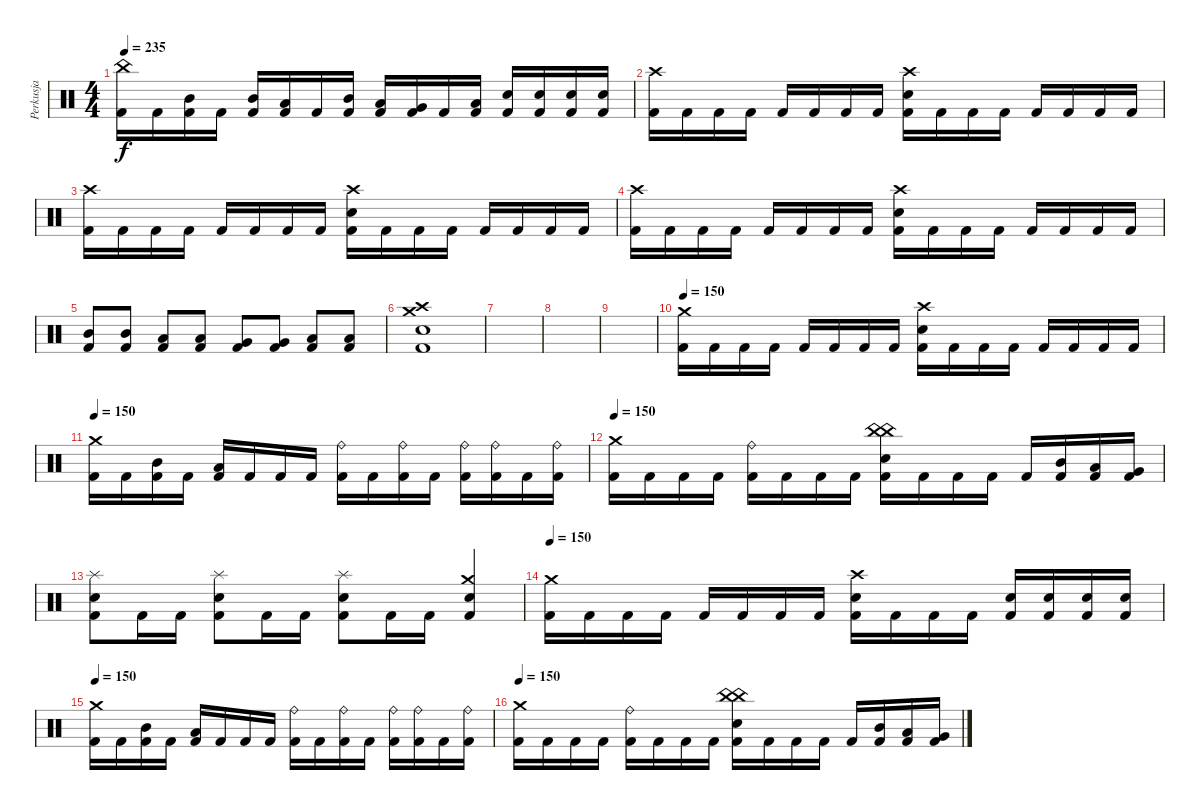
\track ("Perkusja" "Perkusja") {instrument percussion}
\staff {score}
\articulation defaults
\ts (4 4)
\tempo 235
\clef neutral
\ks c
("China (hit)" "Kick (hit) 2").16{dy f} "Kick (hit) 2".16 ("Mid Tom (hit)" "Kick (hit) 2").16 "Kick (hit) 2".16 ("Mid Tom (hit)" "Kick (hit) 2").16 ("Low Tom (hit)" "Kick (hit) 2").16 "Kick (hit) 2".16 ("Mid Tom (hit)" "Kick (hit) 2").16 ("Low Tom (hit)" "Kick (hit) 2").16 ("Very Low Tom (hit)" "Kick (hit) 2").16 "Kick (hit) 2".16 ("Low Floor Tom (hit)" "Kick (hit) 2").16 ("Snare (hit) 2" "Kick (hit) 2").16 ("Snare (hit) 2" "Kick (hit) 2").16 ("Snare (hit) 2" "Kick (hit) 2").16 ("Snare (hit) 2" "Kick (hit) 2").16 |
("Crash high (hit)" "Kick (hit) 2").16 "Kick (hit) 2".16 "Kick (hit) 2".16 "Kick (hit) 2".16 "Kick (hit) 2".16 "Kick (hit) 2".16 "Kick (hit) 2".16 "Kick (hit) 2".16 ("Crash high (hit)" "Snare (hit) 2" "Kick (hit) 2").16 "Kick (hit) 2".16 "Kick (hit) 2".16 "Kick (hit) 2".16 "Kick (hit) 2".16 "Kick (hit) 2".16 "Kick (hit) 2".16 "Kick (hit) 2".16 |
("Crash high (hit)" "Kick (hit) 2").16 "Kick (hit) 2".16 "Kick (hit) 2".16 "Kick (hit) 2".16 "Kick (hit) 2".16 "Kick (hit) 2".16 "Kick (hit) 2".16 "Kick (hit) 2".16 ("Crash high (hit)" "Snare (hit) 2" "Kick (hit) 2").16 "Kick (hit) 2".16 "Kick (hit) 2".16 "Kick (hit) 2".16 "Kick (hit) 2".16 "Kick (hit) 2".16 "Kick (hit) 2".16 "Kick (hit) 2".16 |
("Crash high (hit)" "Kick (hit) 2").16 "Kick (hit) 2".16 "Kick (hit) 2".16 "Kick (hit) 2".16 "Kick (hit) 2".16 "Kick (hit) 2".16 "Kick (hit) 2".16 "Kick (hit) 2".16 ("Crash high (hit)" "Snare (hit) 2" "Kick (hit) 2").16 "Kick (hit) 2".16 "Kick (hit) 2".16 "Kick (hit) 2".16 "Kick (hit) 2".16 "Kick (hit) 2".16 "Kick (hit) 2".16 "Kick (hit) 2".16 |
("Mid Tom (hit)" "Kick (hit) 2").8 ("Mid Tom (hit)" "Kick (hit) 2").8 ("Low Tom (hit)" "Kick (hit) 2").8 ("Low Tom (hit)" "Kick (hit) 2").8 ("Very Low Tom (hit)" "Kick (hit) 2").8 ("Very Low Tom (hit)" "Kick (hit) 2").8 ("Low Floor Tom (hit)" "Kick (hit) 2").8 ("Low Floor Tom (hit)" "Kick (hit) 2").8 |
("Crash high (hit)" "Snare (hit) 2" "Crash medium (hit)" "Kick (hit) 2").1 |
|
|
|
\tempo 150
("Crash medium (hit)" "Kick (hit) 2").16 "Kick (hit) 2".16 "Kick (hit) 2".16 "Kick (hit) 2".16 "Kick (hit) 2".16 "Kick (hit) 2".16 "Kick (hit) 2".16 "Kick (hit) 2".16 ("Crash high (hit)" "Snare (hit) 2" "Kick (hit) 2").16 "Kick (hit) 2".16 "Kick (hit) 2".16 "Kick (hit) 2".16 "Kick (hit) 2".16 "Kick (hit) 2".16 "Kick (hit) 2".16 "Kick (hit) 2".16 |
\tempo 150
("Crash medium (hit)" "Kick (hit) 2").16 "Kick (hit) 2".16 ("Mid Tom (hit)" "Kick (hit) 2").16 "Kick (hit) 2".16 ("Low Tom (hit)" "Kick (hit) 2").16 "Kick (hit) 2".16 "Kick (hit) 2".16 "Kick (hit) 2".16 ("Ride (bell)" "Kick (hit) 2").16 "Kick (hit) 2".16 ("Ride (bell)" "Kick (hit) 2").16 "Kick (hit) 2".16 ("Ride (bell)" "Kick (hit) 2").16 ("Ride (bell)" "Kick (hit) 2").16 "Kick (hit) 2".16 ("Ride (bell)" "Kick (hit) 2").16 |
\tempo 150
("Crash medium (hit)" "Kick (hit) 2").16 "Kick (hit) 2".16 "Kick (hit) 2".16 "Kick (hit) 2".16 ("Ride (bell)" "Kick (hit) 2").16 "Kick (hit) 2".16 "Kick (hit) 2".16 "Kick (hit) 2".16 ("China (hit)" "China (hit)" "Snare (hit) 2" "Kick (hit) 2").16 "Kick (hit) 2".16 "Kick (hit) 2".16 "Kick (hit) 2".16 "Kick (hit) 2".16 ("Mid Tom (hit)" "Kick (hit) 2").16 ("Low Tom (hit)" "Kick (hit) 2").16 ("Very Low Tom (hit)" "Kick (hit) 2").16 |
("Splash (hit)" "Snare (hit) 2" "Kick (hit) 2").8 "Kick (hit) 2".16 "Kick (hit) 2".16 ("Splash (hit)" "Snare (hit) 2" "Kick (hit) 2").8 "Kick (hit) 2".16 "Kick (hit) 2".16 ("Splash (hit)" "Snare (hit) 2" "Kick (hit) 2").8 "Kick (hit) 2".16 "Kick (hit) 2".16 ("Crash medium (hit)" "Electric Snare (hit)" "Kick (hit) 2").4 |
\tempo 150
("Crash medium (hit)" "Kick (hit) 2").16 "Kick (hit) 2".16 "Kick (hit) 2".16 "Kick (hit) 2".16 "Kick (hit) 2".16 "Kick (hit) 2".16 "Kick (hit) 2".16 "Kick (hit) 2".16 ("Crash high (hit)" "Snare (hit) 2" "Kick (hit) 2").16 "Kick (hit) 2".16 "Kick (hit) 2".16 "Kick (hit) 2".16 ("Electric Snare (hit)" "Kick (hit) 2").16 ("Electric Snare (hit)" "Kick (hit) 2").16 ("Electric Snare (hit)" "Kick (hit) 2").16 ("Electric Snare (hit)" "Kick (hit) 2").16 |
\tempo 150
("Crash medium (hit)" "Kick (hit) 2").16 "Kick (hit) 2".16 ("Mid Tom (hit)" "Kick (hit) 2").16 "Kick (hit) 2".16 ("Low Tom (hit)" "Kick (hit) 2").16 "Kick (hit) 2".16 "Kick (hit) 2".16 "Kick (hit) 2".16 ("Ride (bell)" "Kick (hit) 2").16 "Kick (hit) 2".16 ("Ride (bell)" "Kick (hit) 2").16 "Kick (hit) 2".16 ("Ride (bell)" "Kick (hit) 2").16 ("Ride (bell)" "Kick (hit) 2").16 "Kick (hit) 2".16 ("Ride (bell)" "Kick (hit) 2").16 |
\tempo 150
("Crash medium (hit)" "Kick (hit) 2").16 "Kick (hit) 2".16 "Kick (hit) 2".16 "Kick (hit) 2".16 ("Ride (bell)" "Kick (hit) 2").16 "Kick (hit) 2".16 "Kick (hit) 2".16 "Kick (hit) 2".16 ("China (hit)" "China (hit)" "Snare (hit) 2" "Kick (hit) 2").16 "Kick (hit) 2".16 "Kick (hit) 2".16 "Kick (hit) 2".16 "Kick (hit) 2".16 ("Mid Tom (hit)" "Kick (hit) 2").16 ("Low Tom (hit)" "Kick (hit) 2").16 ("Very Low Tom (hit)" "Kick (hit) 2").16
